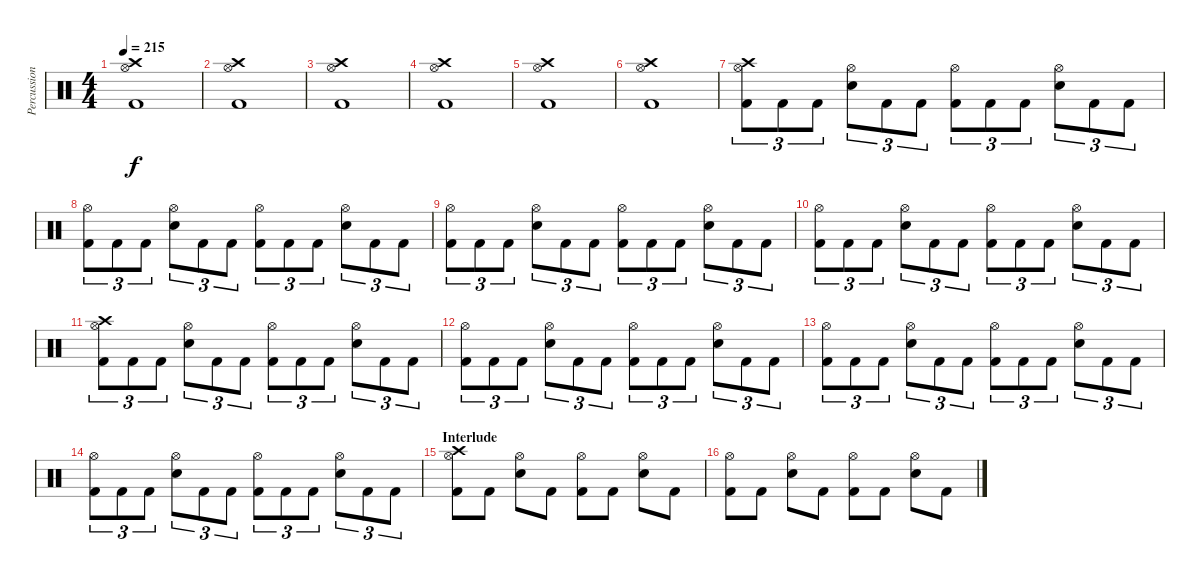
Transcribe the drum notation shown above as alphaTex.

\track ("Percussions" "Percussion") {instrument percussion}
\staff {score}
\articulation defaults
\ts (4 4)
\tempo 215
\clef neutral
\ks c
("Crash high (hit)" "Hi-Hat (open)" "Kick (hit) 2").1{dy f} |
("Crash high (hit)" "Hi-Hat (open)" "Kick (hit) 2").1 |
("Crash high (hit)" "Hi-Hat (open)" "Kick (hit) 2").1 |
("Crash high (hit)" "Hi-Hat (open)" "Kick (hit) 2").1 |
("Crash high (hit)" "Hi-Hat (open)" "Kick (hit) 2").1 |
("Crash high (hit)" "Hi-Hat (open)" "Kick (hit) 2").1 |
("Crash high (hit)" "Hi-Hat (open)" "Kick (hit) 2").8{tu (3 2)} "Kick (hit) 2".8{tu (3 2)} "Kick (hit) 2".8{tu (3 2)} ("Hi-Hat (open)" "Electric Snare (hit)").8{tu (3 2)} "Kick (hit) 2".8{tu (3 2)} "Kick (hit) 2".8{tu (3 2)} ("Hi-Hat (open)" "Kick (hit) 2").8{tu (3 2)} "Kick (hit) 2".8{tu (3 2)} "Kick (hit) 2".8{tu (3 2)} ("Hi-Hat (open)" "Electric Snare (hit)").8{tu (3 2)} "Kick (hit) 2".8{tu (3 2)} "Kick (hit) 2".8{tu (3 2)} |
("Hi-Hat (open)" "Kick (hit) 2").8{tu (3 2)} "Kick (hit) 2".8{tu (3 2)} "Kick (hit) 2".8{tu (3 2)} ("Hi-Hat (open)" "Electric Snare (hit)").8{tu (3 2)} "Kick (hit) 2".8{tu (3 2)} "Kick (hit) 2".8{tu (3 2)} ("Hi-Hat (open)" "Kick (hit) 2").8{tu (3 2)} "Kick (hit) 2".8{tu (3 2)} "Kick (hit) 2".8{tu (3 2)} ("Hi-Hat (open)" "Electric Snare (hit)").8{tu (3 2)} "Kick (hit) 2".8{tu (3 2)} "Kick (hit) 2".8{tu (3 2)} |
("Hi-Hat (open)" "Kick (hit) 2").8{tu (3 2)} "Kick (hit) 2".8{tu (3 2)} "Kick (hit) 2".8{tu (3 2)} ("Hi-Hat (open)" "Electric Snare (hit)").8{tu (3 2)} "Kick (hit) 2".8{tu (3 2)} "Kick (hit) 2".8{tu (3 2)} ("Hi-Hat (open)" "Kick (hit) 2").8{tu (3 2)} "Kick (hit) 2".8{tu (3 2)} "Kick (hit) 2".8{tu (3 2)} ("Hi-Hat (open)" "Electric Snare (hit)").8{tu (3 2)} "Kick (hit) 2".8{tu (3 2)} "Kick (hit) 2".8{tu (3 2)} |
("Hi-Hat (open)" "Kick (hit) 2").8{tu (3 2)} "Kick (hit) 2".8{tu (3 2)} "Kick (hit) 2".8{tu (3 2)} ("Hi-Hat (open)" "Electric Snare (hit)").8{tu (3 2)} "Kick (hit) 2".8{tu (3 2)} "Kick (hit) 2".8{tu (3 2)} ("Hi-Hat (open)" "Kick (hit) 2").8{tu (3 2)} "Kick (hit) 2".8{tu (3 2)} "Kick (hit) 2".8{tu (3 2)} ("Hi-Hat (open)" "Electric Snare (hit)").8{tu (3 2)} "Kick (hit) 2".8{tu (3 2)} "Kick (hit) 2".8{tu (3 2)} |
("Crash high (hit)" "Hi-Hat (open)" "Kick (hit) 2").8{tu (3 2)} "Kick (hit) 2".8{tu (3 2)} "Kick (hit) 2".8{tu (3 2)} ("Hi-Hat (open)" "Electric Snare (hit)").8{tu (3 2)} "Kick (hit) 2".8{tu (3 2)} "Kick (hit) 2".8{tu (3 2)} ("Hi-Hat (open)" "Kick (hit) 2").8{tu (3 2)} "Kick (hit) 2".8{tu (3 2)} "Kick (hit) 2".8{tu (3 2)} ("Hi-Hat (open)" "Electric Snare (hit)").8{tu (3 2)} "Kick (hit) 2".8{tu (3 2)} "Kick (hit) 2".8{tu (3 2)} |
("Hi-Hat (open)" "Kick (hit) 2").8{tu (3 2)} "Kick (hit) 2".8{tu (3 2)} "Kick (hit) 2".8{tu (3 2)} ("Hi-Hat (open)" "Electric Snare (hit)").8{tu (3 2)} "Kick (hit) 2".8{tu (3 2)} "Kick (hit) 2".8{tu (3 2)} ("Hi-Hat (open)" "Kick (hit) 2").8{tu (3 2)} "Kick (hit) 2".8{tu (3 2)} "Kick (hit) 2".8{tu (3 2)} ("Hi-Hat (open)" "Electric Snare (hit)").8{tu (3 2)} "Kick (hit) 2".8{tu (3 2)} "Kick (hit) 2".8{tu (3 2)} |
("Hi-Hat (open)" "Kick (hit) 2").8{tu (3 2)} "Kick (hit) 2".8{tu (3 2)} "Kick (hit) 2".8{tu (3 2)} ("Hi-Hat (open)" "Electric Snare (hit)").8{tu (3 2)} "Kick (hit) 2".8{tu (3 2)} "Kick (hit) 2".8{tu (3 2)} ("Hi-Hat (open)" "Kick (hit) 2").8{tu (3 2)} "Kick (hit) 2".8{tu (3 2)} "Kick (hit) 2".8{tu (3 2)} ("Hi-Hat (open)" "Electric Snare (hit)").8{tu (3 2)} "Kick (hit) 2".8{tu (3 2)} "Kick (hit) 2".8{tu (3 2)} |
("Hi-Hat (open)" "Kick (hit) 2").8{tu (3 2)} "Kick (hit) 2".8{tu (3 2)} "Kick (hit) 2".8{tu (3 2)} ("Hi-Hat (open)" "Electric Snare (hit)").8{tu (3 2)} "Kick (hit) 2".8{tu (3 2)} "Kick (hit) 2".8{tu (3 2)} ("Hi-Hat (open)" "Kick (hit) 2").8{tu (3 2)} "Kick (hit) 2".8{tu (3 2)} "Kick (hit) 2".8{tu (3 2)} ("Hi-Hat (open)" "Electric Snare (hit)").8{tu (3 2)} "Kick (hit) 2".8{tu (3 2)} "Kick (hit) 2".8{tu (3 2)} |
\section ("" "Interlude")
("Crash high (hit)" "Hi-Hat (open)" "Kick (hit) 2").8 "Kick (hit) 2".8 ("Hi-Hat (open)" "Electric Snare (hit)").8 "Kick (hit) 2".8 ("Hi-Hat (open)" "Kick (hit) 2").8 "Kick (hit) 2".8 ("Hi-Hat (open)" "Electric Snare (hit)").8 "Kick (hit) 2".8 |
("Hi-Hat (open)" "Kick (hit) 2").8 "Kick (hit) 2".8 ("Hi-Hat (open)" "Electric Snare (hit)").8 "Kick (hit) 2".8 ("Hi-Hat (open)" "Kick (hit) 2").8 "Kick (hit) 2".8 ("Hi-Hat (open)" "Electric Snare (hit)").8 "Kick (hit) 2".8
